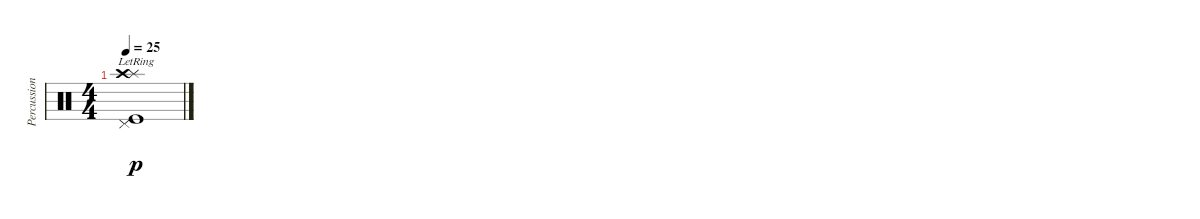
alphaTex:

\track ("Percussion" "Percussion") {instrument percussion}
\staff {score}
\articulation defaults
\ts (4 4)
\tempo 25
\clef neutral
\ks c
("Splash (hit)"{lr} "Pedal Hi-Hat (hit)" "Crash high (hit)" "Kick (hit)"{lr}).1{dy p}
